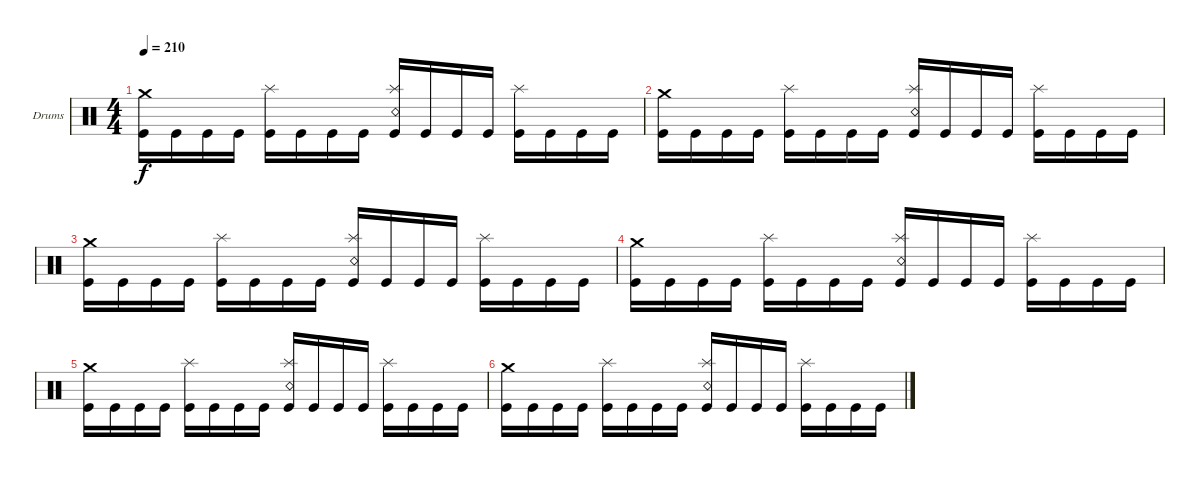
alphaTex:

\defaultSystemsLayout 4
\bracketExtendMode groupsimilarinstruments
\firstSystemTrackNameOrientation horizontal
\otherSystemsTrackNameOrientation horizontal
\track ("Drums" "Drums") {instrument percussion}
\staff {score}
\articulation defaults
\ts (4 4)
\tempo 210
\clef neutral
\ks c
("Kick (hit)" "Crash medium (hit)").16{dy f} "Kick (hit)".16 "Kick (hit)".16 "Kick (hit)".16 ("Kick (hit)" "Splash (hit)").16 "Kick (hit)".16 "Kick (hit)".16 "Kick (hit)".16 ("Kick (hit)" "Snare (rim shot)" "Splash (hit)").16 "Kick (hit)".16 "Kick (hit)".16 "Kick (hit)".16 ("Kick (hit)" "Splash (hit)").16 "Kick (hit)".16 "Kick (hit)".16 "Kick (hit)".16 |
("Kick (hit)" "Crash medium (hit)").16 "Kick (hit)".16 "Kick (hit)".16 "Kick (hit)".16 ("Kick (hit)" "Splash (hit)").16 "Kick (hit)".16 "Kick (hit)".16 "Kick (hit)".16 ("Kick (hit)" "Snare (rim shot)" "Splash (hit)").16 "Kick (hit)".16 "Kick (hit)".16 "Kick (hit)".16 ("Kick (hit)" "Splash (hit)").16 "Kick (hit)".16 "Kick (hit)".16 "Kick (hit)".16 |
("Kick (hit)" "Crash medium (hit)").16 "Kick (hit)".16 "Kick (hit)".16 "Kick (hit)".16 ("Kick (hit)" "Splash (hit)").16 "Kick (hit)".16 "Kick (hit)".16 "Kick (hit)".16 ("Kick (hit)" "Snare (rim shot)" "Splash (hit)").16 "Kick (hit)".16 "Kick (hit)".16 "Kick (hit)".16 ("Kick (hit)" "Splash (hit)").16 "Kick (hit)".16 "Kick (hit)".16 "Kick (hit)".16 |
("Kick (hit)" "Crash medium (hit)").16 "Kick (hit)".16 "Kick (hit)".16 "Kick (hit)".16 ("Kick (hit)" "Splash (hit)").16 "Kick (hit)".16 "Kick (hit)".16 "Kick (hit)".16 ("Kick (hit)" "Snare (rim shot)" "Splash (hit)").16 "Kick (hit)".16 "Kick (hit)".16 "Kick (hit)".16 ("Kick (hit)" "Splash (hit)").16 "Kick (hit)".16 "Kick (hit)".16 "Kick (hit)".16 |
("Kick (hit)" "Crash medium (hit)").16 "Kick (hit)".16 "Kick (hit)".16 "Kick (hit)".16 ("Kick (hit)" "Splash (hit)").16 "Kick (hit)".16 "Kick (hit)".16 "Kick (hit)".16 ("Kick (hit)" "Snare (rim shot)" "Splash (hit)").16 "Kick (hit)".16 "Kick (hit)".16 "Kick (hit)".16 ("Kick (hit)" "Splash (hit)").16 "Kick (hit)".16 "Kick (hit)".16 "Kick (hit)".16 |
("Kick (hit)" "Crash medium (hit)").16 "Kick (hit)".16 "Kick (hit)".16 "Kick (hit)".16 ("Kick (hit)" "Splash (hit)").16 "Kick (hit)".16 "Kick (hit)".16 "Kick (hit)".16 ("Kick (hit)" "Snare (rim shot)" "Splash (hit)").16 "Kick (hit)".16 "Kick (hit)".16 "Kick (hit)".16 ("Kick (hit)" "Splash (hit)").16 "Kick (hit)".16 "Kick (hit)".16 "Kick (hit)".16
